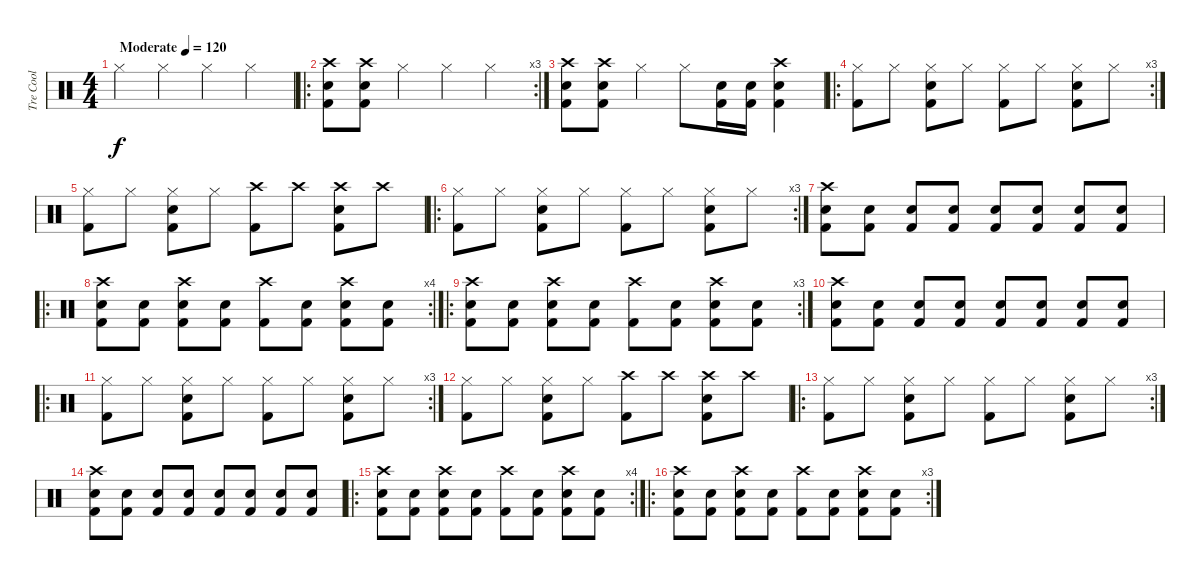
\track ("Tre Cool" "Tre Cool") {instrument percussion}
\staff {score}
\articulation defaults
\ts (4 4)
\tempo (120 "Moderate")
\clef neutral
\ks c "Hi-Hat (closed)".4{dy f} "Hi-Hat (closed)".4 "Hi-Hat (closed)".4 "Hi-Hat (closed)".4
|
\ro
\rc 3
("Crash high (hit)" "Snare (hit) 2" "Kick (hit) 2").8 ("Crash high (hit)" "Snare (hit) 2" "Kick (hit) 2").8 "Hi-Hat (closed)".4 "Hi-Hat (closed)".4 "Hi-Hat (closed)".4 |
("Crash high (hit)" "Snare (hit) 2" "Kick (hit) 2").8 ("Crash high (hit)" "Snare (hit) 2" "Kick (hit) 2").8 "Hi-Hat (closed)".4 "Hi-Hat (closed)".8 ("Snare (hit) 2" "Kick (hit) 2").16 ("Snare (hit) 2" "Kick (hit) 2").16 ("Crash high (hit)" "Snare (hit) 2" "Kick (hit) 2").4 |
\ro
\rc 3
("Hi-Hat (closed)" "Kick (hit) 2").8 "Hi-Hat (closed)".8 ("Hi-Hat (closed)" "Snare (hit) 2" "Kick (hit) 2").8 "Hi-Hat (closed)".8 ("Hi-Hat (closed)" "Kick (hit) 2").8 "Hi-Hat (closed)".8 ("Hi-Hat (closed)" "Snare (hit) 2" "Kick (hit) 2").8 "Hi-Hat (closed)".8 |
("Hi-Hat (closed)" "Kick (hit) 2").8 "Hi-Hat (closed)".8 ("Hi-Hat (closed)" "Snare (hit) 2" "Kick (hit) 2").8 "Hi-Hat (closed)".8 ("Crash high (hit)" "Kick (hit) 2").8 "Crash high (hit)".8 ("Crash high (hit)" "Snare (hit) 2" "Kick (hit) 2").8 "Crash high (hit)".8 |
\ro
\rc 3
("Hi-Hat (closed)" "Kick (hit) 2").8 "Hi-Hat (closed)".8 ("Hi-Hat (closed)" "Snare (hit) 2" "Kick (hit) 2").8 "Hi-Hat (closed)".8 ("Hi-Hat (closed)" "Kick (hit) 2").8 "Hi-Hat (closed)".8 ("Hi-Hat (closed)" "Snare (hit) 2" "Kick (hit) 2").8 "Hi-Hat (closed)".8 |
("Crash high (hit)" "Snare (hit) 2" "Kick (hit) 2").8 ("Snare (hit) 2" "Kick (hit) 2").8 ("Snare (hit) 2" "Kick (hit) 2").8 ("Snare (hit) 2" "Kick (hit) 2").8 ("Snare (hit) 2" "Kick (hit) 2").8 ("Snare (hit) 2" "Kick (hit) 2").8 ("Snare (hit) 2" "Kick (hit) 2").8 ("Snare (hit) 2" "Kick (hit) 2").8 |
\ro
\rc 4
("Crash high (hit)" "Snare (hit) 2" "Kick (hit) 2").8 ("Snare (hit) 2" "Kick (hit) 2").8 ("Crash high (hit)" "Snare (hit) 2" "Kick (hit) 2").8 ("Snare (hit) 2" "Kick (hit) 2").8 ("Crash high (hit)" "Kick (hit) 2").8 ("Snare (hit) 2" "Kick (hit) 2").8 ("Crash high (hit)" "Snare (hit) 2" "Kick (hit) 2").8 ("Snare (hit) 2" "Kick (hit) 2").8 |
\ro
\rc 3
("Crash high (hit)" "Snare (hit) 2" "Kick (hit) 2").8 ("Snare (hit) 2" "Kick (hit) 2").8 ("Crash high (hit)" "Snare (hit) 2" "Kick (hit) 2").8 ("Snare (hit) 2" "Kick (hit) 2").8 ("Crash high (hit)" "Kick (hit) 2").8 ("Snare (hit) 2" "Kick (hit) 2").8 ("Crash high (hit)" "Snare (hit) 2" "Kick (hit) 2").8 ("Snare (hit) 2" "Kick (hit) 2").8 |
("Crash high (hit)" "Snare (hit) 2" "Kick (hit) 2").8 ("Snare (hit) 2" "Kick (hit) 2").8 ("Snare (hit) 2" "Kick (hit) 2").8 ("Snare (hit) 2" "Kick (hit) 2").8 ("Snare (hit) 2" "Kick (hit) 2").8 ("Snare (hit) 2" "Kick (hit) 2").8 ("Snare (hit) 2" "Kick (hit) 2").8 ("Snare (hit) 2" "Kick (hit) 2").8 |
\ro
\rc 3
("Hi-Hat (closed)" "Kick (hit) 2").8 "Hi-Hat (closed)".8 ("Hi-Hat (closed)" "Snare (hit) 2" "Kick (hit) 2").8 "Hi-Hat (closed)".8 ("Hi-Hat (closed)" "Kick (hit) 2").8 "Hi-Hat (closed)".8 ("Hi-Hat (closed)" "Snare (hit) 2" "Kick (hit) 2").8 "Hi-Hat (closed)".8 |
("Hi-Hat (closed)" "Kick (hit) 2").8 "Hi-Hat (closed)".8 ("Hi-Hat (closed)" "Snare (hit) 2" "Kick (hit) 2").8 "Hi-Hat (closed)".8 ("Crash high (hit)" "Kick (hit) 2").8 "Crash high (hit)".8 ("Crash high (hit)" "Snare (hit) 2" "Kick (hit) 2").8 "Crash high (hit)".8 |
\ro
\rc 3
("Hi-Hat (closed)" "Kick (hit) 2").8 "Hi-Hat (closed)".8 ("Hi-Hat (closed)" "Snare (hit) 2" "Kick (hit) 2").8 "Hi-Hat (closed)".8 ("Hi-Hat (closed)" "Kick (hit) 2").8 "Hi-Hat (closed)".8 ("Hi-Hat (closed)" "Snare (hit) 2" "Kick (hit) 2").8 "Hi-Hat (closed)".8 |
("Crash high (hit)" "Snare (hit) 2" "Kick (hit) 2").8 ("Snare (hit) 2" "Kick (hit) 2").8 ("Snare (hit) 2" "Kick (hit) 2").8 ("Snare (hit) 2" "Kick (hit) 2").8 ("Snare (hit) 2" "Kick (hit) 2").8 ("Snare (hit) 2" "Kick (hit) 2").8 ("Snare (hit) 2" "Kick (hit) 2").8 ("Snare (hit) 2" "Kick (hit) 2").8 |
\ro
\rc 4
("Crash high (hit)" "Snare (hit) 2" "Kick (hit) 2").8 ("Snare (hit) 2" "Kick (hit) 2").8 ("Crash high (hit)" "Snare (hit) 2" "Kick (hit) 2").8 ("Snare (hit) 2" "Kick (hit) 2").8 ("Crash high (hit)" "Kick (hit) 2").8 ("Snare (hit) 2" "Kick (hit) 2").8 ("Crash high (hit)" "Snare (hit) 2" "Kick (hit) 2").8 ("Snare (hit) 2" "Kick (hit) 2").8 |
\ro
\rc 3
("Crash high (hit)" "Snare (hit) 2" "Kick (hit) 2").8 ("Snare (hit) 2" "Kick (hit) 2").8 ("Crash high (hit)" "Snare (hit) 2" "Kick (hit) 2").8 ("Snare (hit) 2" "Kick (hit) 2").8 ("Crash high (hit)" "Kick (hit) 2").8 ("Snare (hit) 2" "Kick (hit) 2").8 ("Crash high (hit)" "Snare (hit) 2" "Kick (hit) 2").8 ("Snare (hit) 2" "Kick (hit) 2").8
